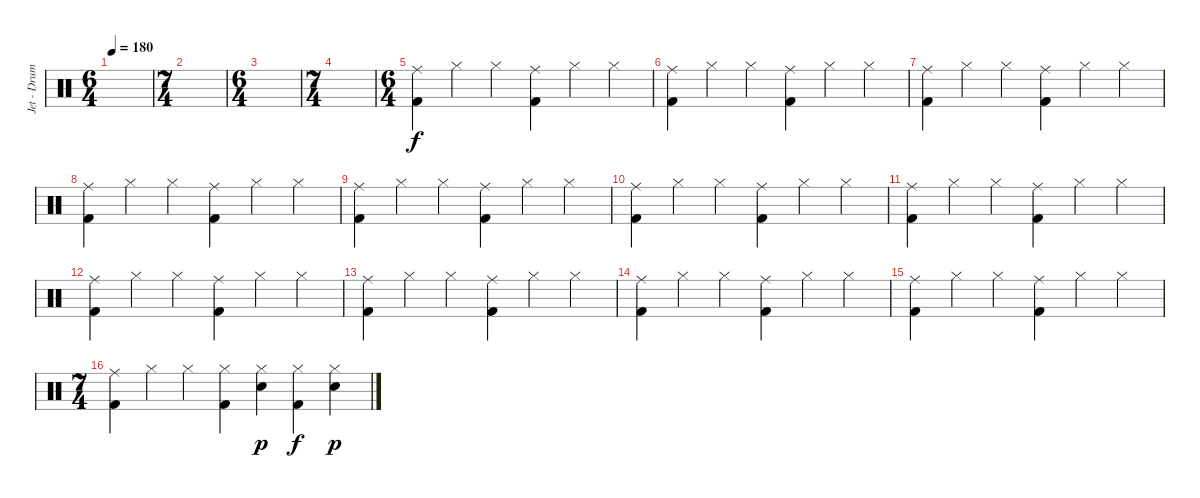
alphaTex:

\track ("Jet - Drums" "Jet - Drum") {instrument percussion}
\staff {score}
\articulation defaults
\ts (6 4)
\tempo 180
\clef neutral
\ks c
|
\ts (7 4)
|
\ts (6 4)
|
\ts (7 4)
|
\ts (6 4)
("Ride (middle)" "Kick (hit) 2").4 "Hi-Hat (closed)".4 "Hi-Hat (closed)".4 ("Ride (middle)" "Kick (hit) 2").4 "Hi-Hat (closed)".4 "Hi-Hat (closed)".4 |
("Ride (middle)" "Kick (hit) 2").4 "Hi-Hat (closed)".4 "Hi-Hat (closed)".4 ("Ride (middle)" "Kick (hit) 2").4 "Hi-Hat (closed)".4 "Hi-Hat (closed)".4 |
("Ride (middle)" "Kick (hit) 2").4 "Hi-Hat (closed)".4 "Hi-Hat (closed)".4 ("Ride (middle)" "Kick (hit) 2").4 "Hi-Hat (closed)".4 "Hi-Hat (closed)".4 |
("Ride (middle)" "Kick (hit) 2").4 "Hi-Hat (closed)".4 "Hi-Hat (closed)".4 ("Ride (middle)" "Kick (hit) 2").4 "Hi-Hat (closed)".4 "Hi-Hat (closed)".4 |
("Ride (middle)" "Kick (hit) 2").4 "Hi-Hat (closed)".4 "Hi-Hat (closed)".4 ("Ride (middle)" "Kick (hit) 2").4 "Hi-Hat (closed)".4 "Hi-Hat (closed)".4 |
("Ride (middle)" "Kick (hit) 2").4 "Hi-Hat (closed)".4 "Hi-Hat (closed)".4 ("Ride (middle)" "Kick (hit) 2").4 "Hi-Hat (closed)".4 "Hi-Hat (closed)".4 |
("Ride (middle)" "Kick (hit) 2").4 "Hi-Hat (closed)".4 "Hi-Hat (closed)".4 ("Ride (middle)" "Kick (hit) 2").4 "Hi-Hat (closed)".4 "Hi-Hat (closed)".4 |
("Ride (middle)" "Kick (hit) 2").4 "Hi-Hat (closed)".4 "Hi-Hat (closed)".4 ("Ride (middle)" "Kick (hit) 2").4 "Hi-Hat (closed)".4 "Hi-Hat (closed)".4 |
("Ride (middle)" "Kick (hit) 2").4 "Hi-Hat (closed)".4 "Hi-Hat (closed)".4 ("Ride (middle)" "Kick (hit) 2").4 "Hi-Hat (closed)".4 "Hi-Hat (closed)".4 |
("Ride (middle)" "Kick (hit) 2").4 "Hi-Hat (closed)".4 "Hi-Hat (closed)".4 ("Ride (middle)" "Kick (hit) 2").4 "Hi-Hat (closed)".4 "Hi-Hat (closed)".4 |
("Ride (middle)" "Kick (hit) 2").4 "Hi-Hat (closed)".4 "Hi-Hat (closed)".4 ("Ride (middle)" "Kick (hit) 2").4 "Hi-Hat (closed)".4 "Hi-Hat (closed)".4 |
\ts (7 4)
("Ride (middle)" "Kick (hit) 2").4 "Hi-Hat (closed)".4 "Hi-Hat (closed)".4 ("Hi-Hat (closed)" "Kick (hit) 2").4 ("Hi-Hat (closed)" "Electric Snare (hit)").4{dy p} ("Hi-Hat (closed)" "Kick (hit) 2").4{dy f} ("Hi-Hat (closed)" "Electric Snare (hit)").4{dy p}
